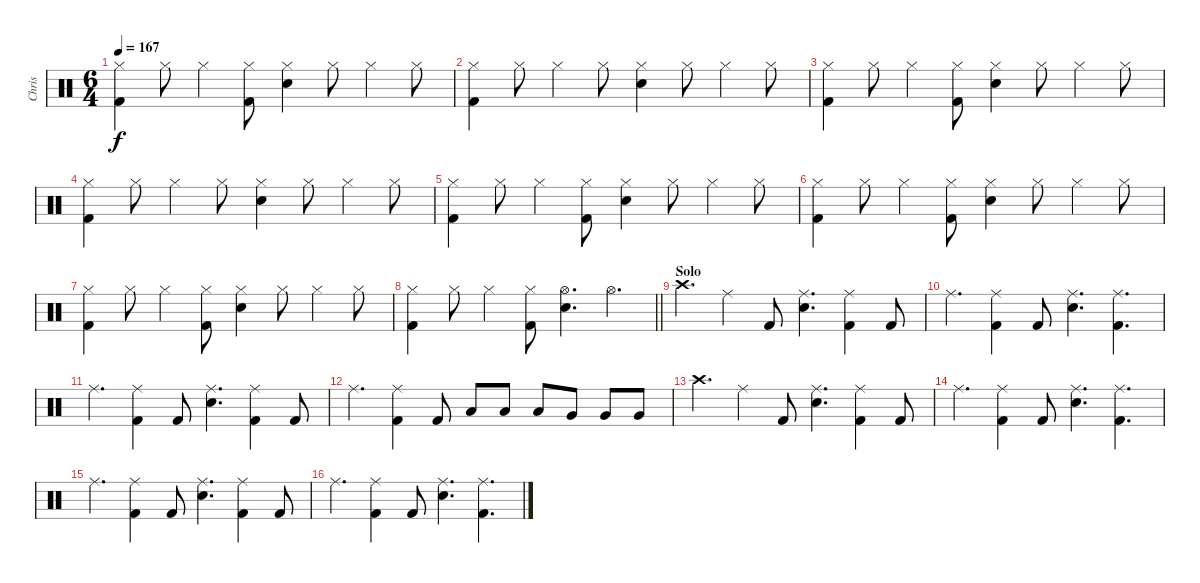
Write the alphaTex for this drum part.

\track ("Chris" "Chris") {instrument percussion}
\staff {score}
\articulation defaults
\ts (6 4)
\tempo 167
\clef neutral
\ks c
("Hi-Hat (closed)" "Kick (hit) 2").4{dy f} "Hi-Hat (closed)".8 "Hi-Hat (closed)".4 ("Hi-Hat (closed)" "Kick (hit) 2").8 ("Hi-Hat (closed)" "Electric Snare (hit)").4 "Hi-Hat (closed)".8 "Hi-Hat (closed)".4 "Hi-Hat (closed)".8 |
("Hi-Hat (closed)" "Kick (hit) 2").4 "Hi-Hat (closed)".8 "Hi-Hat (closed)".4 "Hi-Hat (closed)".8 ("Hi-Hat (closed)" "Electric Snare (hit)").4 "Hi-Hat (closed)".8 "Hi-Hat (closed)".4 "Hi-Hat (closed)".8 |
("Hi-Hat (closed)" "Kick (hit) 2").4 "Hi-Hat (closed)".8 "Hi-Hat (closed)".4 ("Hi-Hat (closed)" "Kick (hit) 2").8 ("Hi-Hat (closed)" "Electric Snare (hit)").4 "Hi-Hat (closed)".8 "Hi-Hat (closed)".4 "Hi-Hat (closed)".8 |
("Hi-Hat (closed)" "Kick (hit) 2").4 "Hi-Hat (closed)".8 "Hi-Hat (closed)".4 "Hi-Hat (closed)".8 ("Hi-Hat (closed)" "Electric Snare (hit)").4 "Hi-Hat (closed)".8 "Hi-Hat (closed)".4 "Hi-Hat (closed)".8 |
("Hi-Hat (closed)" "Kick (hit) 2").4 "Hi-Hat (closed)".8 "Hi-Hat (closed)".4 ("Hi-Hat (closed)" "Kick (hit) 2").8 ("Hi-Hat (closed)" "Electric Snare (hit)").4 "Hi-Hat (closed)".8 "Hi-Hat (closed)".4 "Hi-Hat (closed)".8 |
("Hi-Hat (closed)" "Kick (hit) 2").4 "Hi-Hat (closed)".8 "Hi-Hat (closed)".4 ("Hi-Hat (closed)" "Kick (hit) 2").8 ("Hi-Hat (closed)" "Electric Snare (hit)").4 "Hi-Hat (closed)".8 "Hi-Hat (closed)".4 "Hi-Hat (closed)".8 |
("Hi-Hat (closed)" "Kick (hit) 2").4 "Hi-Hat (closed)".8 "Hi-Hat (closed)".4 ("Hi-Hat (closed)" "Kick (hit) 2").8 ("Hi-Hat (closed)" "Electric Snare (hit)").4 "Hi-Hat (closed)".8 "Hi-Hat (closed)".4 "Hi-Hat (closed)".8 |
\barLineRight lightlight
("Hi-Hat (closed)" "Kick (hit) 2").4 "Hi-Hat (closed)".8 "Hi-Hat (closed)".4 ("Hi-Hat (closed)" "Kick (hit) 2").8 ("Hi-Hat (open)" "Electric Snare (hit)").4{d} "Hi-Hat (open)".4{d} |
\section ("" "Solo")
"Crash high (hit)".4{d} "Ride (middle)".4 "Kick (hit) 2".8 ("Ride (middle)" "Electric Snare (hit)").4{d} ("Ride (middle)" "Kick (hit) 2").4 "Kick (hit) 2".8 |
"Ride (middle)".4{d} ("Ride (middle)" "Kick (hit) 2").4 "Kick (hit) 2".8 ("Ride (middle)" "Electric Snare (hit)").4{d} ("Ride (middle)" "Kick (hit) 2").4{d} |
"Ride (middle)".4{d} ("Ride (middle)" "Kick (hit) 2").4 "Kick (hit) 2".8 ("Ride (middle)" "Electric Snare (hit)").4{d} ("Ride (middle)" "Kick (hit) 2").4 "Kick (hit) 2".8 |
"Ride (middle)".4{d} ("Ride (middle)" "Kick (hit) 2").4 "Kick (hit) 2".8 "Low Tom (hit)".8 "Low Tom (hit)".8 "Low Tom (hit)".8 "Very Low Tom (hit)".8 "Very Low Tom (hit)".8 "Very Low Tom (hit)".8 |
"Crash high (hit)".4{d} "Ride (middle)".4 "Kick (hit) 2".8 ("Ride (middle)" "Electric Snare (hit)").4{d} ("Ride (middle)" "Kick (hit) 2").4 "Kick (hit) 2".8 |
"Ride (middle)".4{d} ("Ride (middle)" "Kick (hit) 2").4 "Kick (hit) 2".8 ("Ride (middle)" "Electric Snare (hit)").4{d} ("Ride (middle)" "Kick (hit) 2").4{d} |
"Ride (middle)".4{d} ("Ride (middle)" "Kick (hit) 2").4 "Kick (hit) 2".8 ("Ride (middle)" "Electric Snare (hit)").4{d} ("Ride (middle)" "Kick (hit) 2").4 "Kick (hit) 2".8 |
"Ride (middle)".4{d} ("Ride (middle)" "Kick (hit) 2").4 "Kick (hit) 2".8 ("Ride (middle)" "Electric Snare (hit)").4{d} ("Ride (middle)" "Kick (hit) 2").4{d}
